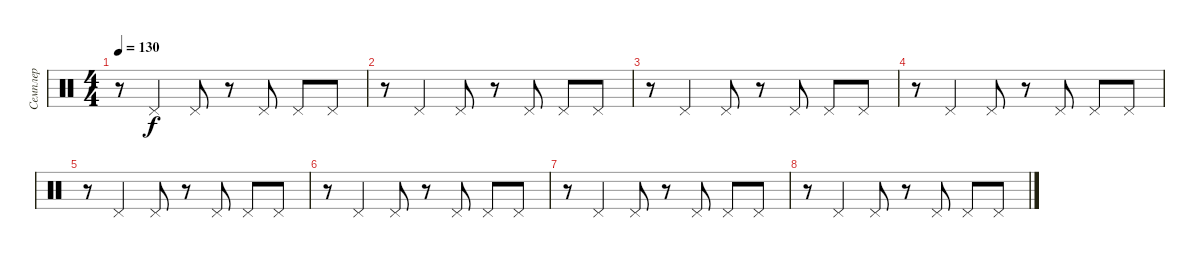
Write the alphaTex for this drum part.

\track ("Семплер" "Семплер") {instrument percussion}
\staff {score}
\articulation defaults
\ts (4 4)
\tempo 130
\clef neutral
\ks c
r.8{dy f} "Pedal Hi-Hat (hit)".4 "Pedal Hi-Hat (hit)".8 r.8 "Pedal Hi-Hat (hit)".8 "Pedal Hi-Hat (hit)".8 "Pedal Hi-Hat (hit)".8 |
r.8 "Pedal Hi-Hat (hit)".4 "Pedal Hi-Hat (hit)".8 r.8 "Pedal Hi-Hat (hit)".8 "Pedal Hi-Hat (hit)".8 "Pedal Hi-Hat (hit)".8 |
r.8 "Pedal Hi-Hat (hit)".4 "Pedal Hi-Hat (hit)".8 r.8 "Pedal Hi-Hat (hit)".8 "Pedal Hi-Hat (hit)".8 "Pedal Hi-Hat (hit)".8 |
r.8 "Pedal Hi-Hat (hit)".4 "Pedal Hi-Hat (hit)".8 r.8 "Pedal Hi-Hat (hit)".8 "Pedal Hi-Hat (hit)".8 "Pedal Hi-Hat (hit)".8 |
r.8 "Pedal Hi-Hat (hit)".4 "Pedal Hi-Hat (hit)".8 r.8 "Pedal Hi-Hat (hit)".8 "Pedal Hi-Hat (hit)".8 "Pedal Hi-Hat (hit)".8 |
r.8 "Pedal Hi-Hat (hit)".4 "Pedal Hi-Hat (hit)".8 r.8 "Pedal Hi-Hat (hit)".8 "Pedal Hi-Hat (hit)".8 "Pedal Hi-Hat (hit)".8 |
r.8 "Pedal Hi-Hat (hit)".4 "Pedal Hi-Hat (hit)".8 r.8 "Pedal Hi-Hat (hit)".8 "Pedal Hi-Hat (hit)".8 "Pedal Hi-Hat (hit)".8 |
r.8 "Pedal Hi-Hat (hit)".4 "Pedal Hi-Hat (hit)".8 r.8 "Pedal Hi-Hat (hit)".8 "Pedal Hi-Hat (hit)".8 "Pedal Hi-Hat (hit)".8
